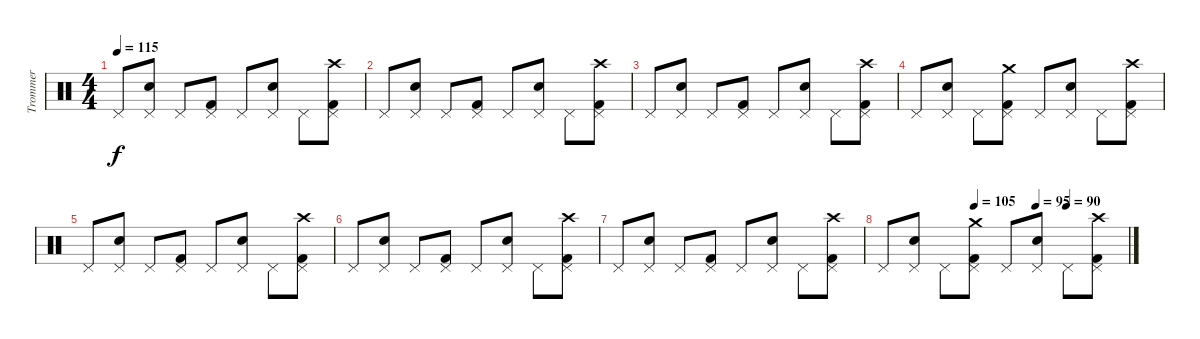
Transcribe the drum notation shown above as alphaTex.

\track ("Trommer" "Trommer") {instrument percussion}
\staff {score}
\articulation defaults
\ts (4 4)
\tempo 115
\clef neutral
\ks c "Pedal Hi-Hat (hit)".8{dy f}
("Pedal Hi-Hat (hit)" "Electric Snare (hit)").8 "Pedal Hi-Hat (hit)".8 ("Pedal Hi-Hat (hit)" "Kick (hit) 2").8 "Pedal Hi-Hat (hit)".8 ("Pedal Hi-Hat (hit)" "Electric Snare (hit)").8 "Pedal Hi-Hat (hit)".8 ("Pedal Hi-Hat (hit)" "Crash high (hit)" "Kick (hit) 2").8 |
"Pedal Hi-Hat (hit)".8 ("Pedal Hi-Hat (hit)" "Electric Snare (hit)").8 "Pedal Hi-Hat (hit)".8 ("Pedal Hi-Hat (hit)" "Kick (hit) 2").8 "Pedal Hi-Hat (hit)".8 ("Pedal Hi-Hat (hit)" "Electric Snare (hit)").8 "Pedal Hi-Hat (hit)".8 ("Pedal Hi-Hat (hit)" "Crash high (hit)" "Kick (hit) 2").8 |
"Pedal Hi-Hat (hit)".8 ("Pedal Hi-Hat (hit)" "Electric Snare (hit)").8 "Pedal Hi-Hat (hit)".8 ("Pedal Hi-Hat (hit)" "Kick (hit) 2").8 "Pedal Hi-Hat (hit)".8 ("Pedal Hi-Hat (hit)" "Electric Snare (hit)").8 "Pedal Hi-Hat (hit)".8 ("Pedal Hi-Hat (hit)" "Crash high (hit)" "Kick (hit) 2").8 |
"Pedal Hi-Hat (hit)".8 ("Pedal Hi-Hat (hit)" "Electric Snare (hit)").8 "Pedal Hi-Hat (hit)".8 ("Pedal Hi-Hat (hit)" "Crash medium (hit)" "Kick (hit) 2").8 "Pedal Hi-Hat (hit)".8 ("Pedal Hi-Hat (hit)" "Electric Snare (hit)").8 "Pedal Hi-Hat (hit)".8 ("Pedal Hi-Hat (hit)" "Crash high (hit)" "Kick (hit) 2").8 |
"Pedal Hi-Hat (hit)".8 ("Pedal Hi-Hat (hit)" "Electric Snare (hit)").8 "Pedal Hi-Hat (hit)".8 ("Pedal Hi-Hat (hit)" "Kick (hit) 2").8 "Pedal Hi-Hat (hit)".8 ("Pedal Hi-Hat (hit)" "Electric Snare (hit)").8 "Pedal Hi-Hat (hit)".8 ("Pedal Hi-Hat (hit)" "Crash high (hit)" "Kick (hit) 2").8 |
"Pedal Hi-Hat (hit)".8 ("Pedal Hi-Hat (hit)" "Electric Snare (hit)").8 "Pedal Hi-Hat (hit)".8 ("Pedal Hi-Hat (hit)" "Kick (hit) 2").8 "Pedal Hi-Hat (hit)".8 ("Pedal Hi-Hat (hit)" "Electric Snare (hit)").8 "Pedal Hi-Hat (hit)".8 ("Pedal Hi-Hat (hit)" "Crash high (hit)" "Kick (hit) 2").8 |
"Pedal Hi-Hat (hit)".8 ("Pedal Hi-Hat (hit)" "Electric Snare (hit)").8 "Pedal Hi-Hat (hit)".8 ("Pedal Hi-Hat (hit)" "Kick (hit) 2").8 "Pedal Hi-Hat (hit)".8 ("Pedal Hi-Hat (hit)" "Electric Snare (hit)").8 "Pedal Hi-Hat (hit)".8 ("Pedal Hi-Hat (hit)" "Crash high (hit)" "Kick (hit) 2").8 |
\tempo (105 0.375)
\tempo (95 0.625)
\tempo (90 0.75)
"Pedal Hi-Hat (hit)".8 ("Pedal Hi-Hat (hit)" "Electric Snare (hit)").8 "Pedal Hi-Hat (hit)".8 ("Pedal Hi-Hat (hit)" "Crash medium (hit)" "Kick (hit) 2").8 "Pedal Hi-Hat (hit)".8 ("Pedal Hi-Hat (hit)" "Electric Snare (hit)").8 "Pedal Hi-Hat (hit)".8 ("Pedal Hi-Hat (hit)" "Crash high (hit)" "Kick (hit) 2").8
